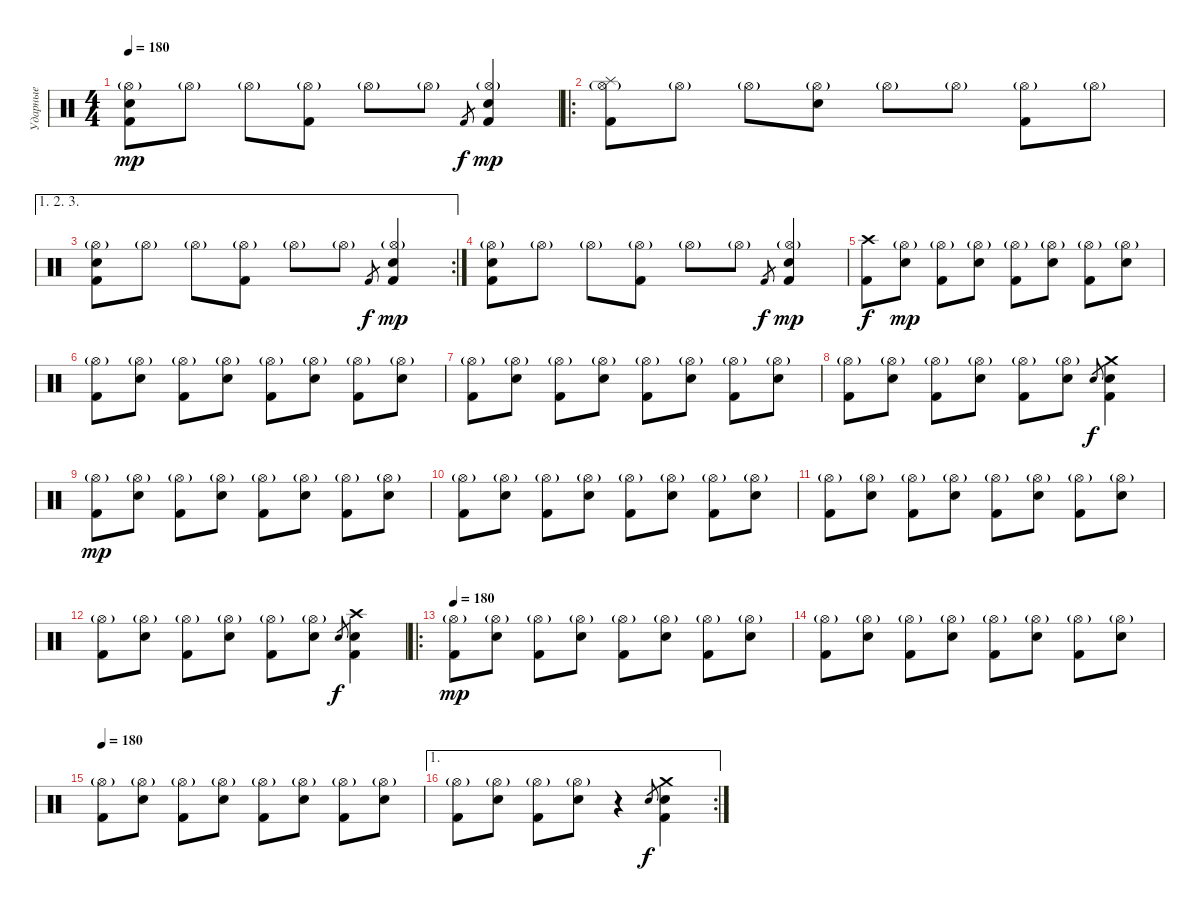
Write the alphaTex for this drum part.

\track ("Ударные" "Ударные") {instrument percussion}
\staff {score}
\articulation defaults
\ts (4 4)
\tempo 180
\clef neutral
\ks c
("Electric Snare (hit)" "Hi-Hat (open)"{g} "Kick (hit) 2").8{dy mp} "Hi-Hat (open)"{g}.8 "Hi-Hat (open)"{g}.8 ("Hi-Hat (open)"{g} "Kick (hit) 2").8 "Hi-Hat (open)"{g}.8 "Hi-Hat (open)"{g}.8 "Kick (hit) 2".8{gr dy f} ("Electric Snare (hit)" "Hi-Hat (open)"{g} "Kick (hit) 2").4{dy mp} |
\ro
("Splash (hit)" "Hi-Hat (open)"{g} "Kick (hit) 2").8 "Hi-Hat (open)"{g}.8 "Hi-Hat (open)"{g}.8 ("Electric Snare (hit)" "Hi-Hat (open)"{g}).8 "Hi-Hat (open)"{g}.8 "Hi-Hat (open)"{g}.8 ("Hi-Hat (open)"{g} "Kick (hit) 2").8 "Hi-Hat (open)"{g}.8 |
\ae (1 2 3)
\rc 2
("Electric Snare (hit)" "Hi-Hat (open)"{g} "Kick (hit) 2").8 "Hi-Hat (open)"{g}.8 "Hi-Hat (open)"{g}.8 ("Hi-Hat (open)"{g} "Kick (hit) 2").8 "Hi-Hat (open)"{g}.8 "Hi-Hat (open)"{g}.8 "Kick (hit) 2".8{gr dy f} ("Electric Snare (hit)" "Hi-Hat (open)"{g} "Kick (hit) 2").4{dy mp} |
("Electric Snare (hit)" "Hi-Hat (open)"{g} "Kick (hit) 2").8 "Hi-Hat (open)"{g}.8 "Hi-Hat (open)"{g}.8 ("Hi-Hat (open)"{g} "Kick (hit) 2").8 "Hi-Hat (open)"{g}.8 "Hi-Hat (open)"{g}.8 "Kick (hit) 2".8{gr dy f} ("Electric Snare (hit)" "Hi-Hat (open)"{g} "Kick (hit) 2").4{dy mp} |
("Crash high (hit)" "Kick (hit) 2").8{dy f} ("Electric Snare (hit)" "Hi-Hat (open)"{g}).8{dy mp} ("Hi-Hat (open)"{g} "Kick (hit) 2").8 ("Electric Snare (hit)" "Hi-Hat (open)"{g}).8 ("Hi-Hat (open)"{g} "Kick (hit) 2").8 ("Electric Snare (hit)" "Hi-Hat (open)"{g}).8 ("Hi-Hat (open)"{g} "Kick (hit) 2").8 ("Electric Snare (hit)" "Hi-Hat (open)"{g}).8 |
("Hi-Hat (open)"{g} "Kick (hit) 2").8 ("Electric Snare (hit)" "Hi-Hat (open)"{g}).8 ("Hi-Hat (open)"{g} "Kick (hit) 2").8 ("Electric Snare (hit)" "Hi-Hat (open)"{g}).8 ("Hi-Hat (open)"{g} "Kick (hit) 2").8 ("Electric Snare (hit)" "Hi-Hat (open)"{g}).8 ("Hi-Hat (open)"{g} "Kick (hit) 2").8 ("Electric Snare (hit)" "Hi-Hat (open)"{g}).8 |
("Hi-Hat (open)"{g} "Kick (hit) 2").8 ("Electric Snare (hit)" "Hi-Hat (open)"{g}).8 ("Hi-Hat (open)"{g} "Kick (hit) 2").8 ("Electric Snare (hit)" "Hi-Hat (open)"{g}).8 ("Hi-Hat (open)"{g} "Kick (hit) 2").8 ("Electric Snare (hit)" "Hi-Hat (open)"{g}).8 ("Hi-Hat (open)"{g} "Kick (hit) 2").8 ("Electric Snare (hit)" "Hi-Hat (open)"{g}).8 |
("Hi-Hat (open)"{g} "Kick (hit) 2").8 ("Electric Snare (hit)" "Hi-Hat (open)"{g}).8 ("Hi-Hat (open)"{g} "Kick (hit) 2").8 ("Electric Snare (hit)" "Hi-Hat (open)"{g}).8 ("Hi-Hat (open)"{g} "Kick (hit) 2").8 ("Electric Snare (hit)" "Hi-Hat (open)"{g}).8 "Electric Snare (hit)".8{gr dy f} ("Crash medium (hit)" "Electric Snare (hit)" "Kick (hit) 2").4 |
("Hi-Hat (open)"{g} "Kick (hit) 2").8{dy mp} ("Electric Snare (hit)" "Hi-Hat (open)"{g}).8 ("Hi-Hat (open)"{g} "Kick (hit) 2").8 ("Electric Snare (hit)" "Hi-Hat (open)"{g}).8 ("Hi-Hat (open)"{g} "Kick (hit) 2").8 ("Electric Snare (hit)" "Hi-Hat (open)"{g}).8 ("Hi-Hat (open)"{g} "Kick (hit) 2").8 ("Electric Snare (hit)" "Hi-Hat (open)"{g}).8 |
("Hi-Hat (open)"{g} "Kick (hit) 2").8 ("Electric Snare (hit)" "Hi-Hat (open)"{g}).8 ("Hi-Hat (open)"{g} "Kick (hit) 2").8 ("Electric Snare (hit)" "Hi-Hat (open)"{g}).8 ("Hi-Hat (open)"{g} "Kick (hit) 2").8 ("Electric Snare (hit)" "Hi-Hat (open)"{g}).8 ("Hi-Hat (open)"{g} "Kick (hit) 2").8 ("Electric Snare (hit)" "Hi-Hat (open)"{g}).8 |
("Hi-Hat (open)"{g} "Kick (hit) 2").8 ("Electric Snare (hit)" "Hi-Hat (open)"{g}).8 ("Hi-Hat (open)"{g} "Kick (hit) 2").8 ("Electric Snare (hit)" "Hi-Hat (open)"{g}).8 ("Hi-Hat (open)"{g} "Kick (hit) 2").8 ("Electric Snare (hit)" "Hi-Hat (open)"{g}).8 ("Hi-Hat (open)"{g} "Kick (hit) 2").8 ("Electric Snare (hit)" "Hi-Hat (open)"{g}).8 |
("Hi-Hat (open)"{g} "Kick (hit) 2").8 ("Electric Snare (hit)" "Hi-Hat (open)"{g}).8 ("Hi-Hat (open)"{g} "Kick (hit) 2").8 ("Electric Snare (hit)" "Hi-Hat (open)"{g}).8 ("Hi-Hat (open)"{g} "Kick (hit) 2").8 ("Electric Snare (hit)" "Hi-Hat (open)"{g}).8 "Electric Snare (hit)".8{gr dy f} ("Crash high (hit)" "Electric Snare (hit)" "Kick (hit) 2").4 |
\ro
\tempo 180
("Hi-Hat (open)"{g} "Kick (hit) 2").8{dy mp} ("Electric Snare (hit)" "Hi-Hat (open)"{g}).8 ("Hi-Hat (open)"{g} "Kick (hit) 2").8 ("Electric Snare (hit)" "Hi-Hat (open)"{g}).8 ("Hi-Hat (open)"{g} "Kick (hit) 2").8 ("Electric Snare (hit)" "Hi-Hat (open)"{g}).8 ("Hi-Hat (open)"{g} "Kick (hit) 2").8 ("Electric Snare (hit)" "Hi-Hat (open)"{g}).8 |
("Hi-Hat (open)"{g} "Kick (hit) 2").8 ("Electric Snare (hit)" "Hi-Hat (open)"{g}).8 ("Hi-Hat (open)"{g} "Kick (hit) 2").8 ("Electric Snare (hit)" "Hi-Hat (open)"{g}).8 ("Hi-Hat (open)"{g} "Kick (hit) 2").8 ("Electric Snare (hit)" "Hi-Hat (open)"{g}).8 ("Hi-Hat (open)"{g} "Kick (hit) 2").8 ("Electric Snare (hit)" "Hi-Hat (open)"{g}).8 |
\tempo 180
("Hi-Hat (open)"{g} "Kick (hit) 2").8 ("Electric Snare (hit)" "Hi-Hat (open)"{g}).8 ("Hi-Hat (open)"{g} "Kick (hit) 2").8 ("Electric Snare (hit)" "Hi-Hat (open)"{g}).8 ("Hi-Hat (open)"{g} "Kick (hit) 2").8 ("Electric Snare (hit)" "Hi-Hat (open)"{g}).8 ("Hi-Hat (open)"{g} "Kick (hit) 2").8 ("Electric Snare (hit)" "Hi-Hat (open)"{g}).8 |
\ae 1
\rc 2
("Hi-Hat (open)"{g} "Kick (hit) 2").8 ("Electric Snare (hit)" "Hi-Hat (open)"{g}).8 ("Hi-Hat (open)"{g} "Kick (hit) 2").8 ("Electric Snare (hit)" "Hi-Hat (open)"{g}).8 r.4 "Electric Snare (hit)".8{gr dy f} ("Crash medium (hit)" "Electric Snare (hit)" "Kick (hit) 2").4
